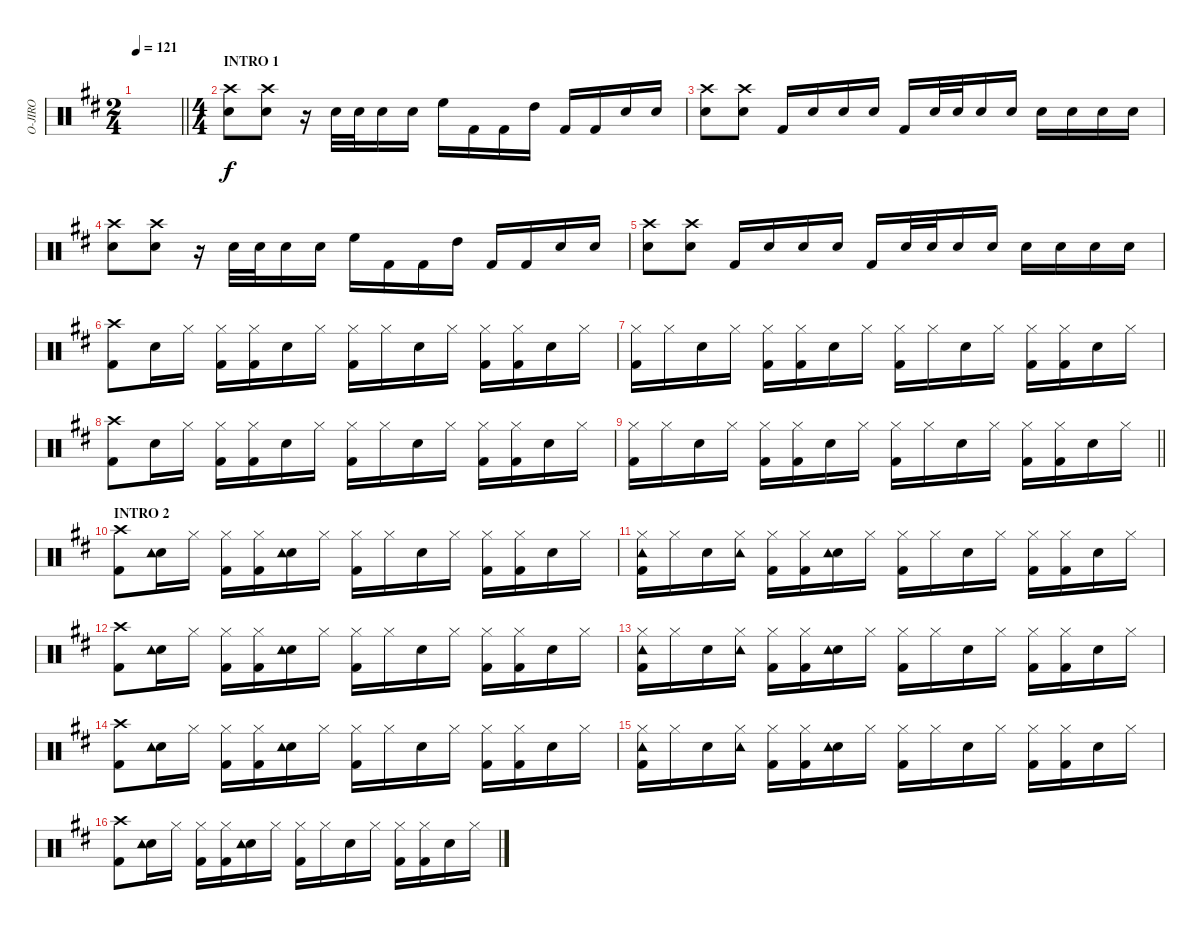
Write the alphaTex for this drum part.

\track ("O-JIRO" "O-JIRO") {instrument percussion}
\staff {score}
\articulation defaults
\ts (2 4)
\tempo 121
\clef neutral
\barLineRight lightlight
\ks d
|
\ts (4 4)
\section ("" "INTRO 1")
("Crash high (hit)" "Snare (hit) 2").8 ("Crash high (hit)" "Snare (hit) 2").8 r.16 "Snare (hit) 2".32 "Snare (hit) 2".32 "Snare (hit) 2".16 "Snare (hit) 2".16 "High Floor Tom (hit)".16 "Kick (hit) 2".16 "Kick (hit) 2".16 "High Tom (hit)".16 "Kick (hit) 2".16 "Kick (hit) 2".16 "Snare (hit) 2".16 "Snare (hit) 2".16 |
("Crash high (hit)" "Snare (hit) 2").8 ("Crash high (hit)" "Snare (hit) 2").8 "Kick (hit) 2".16 "Snare (hit) 2".16 "Snare (hit) 2".16 "Snare (hit) 2".16 "Kick (hit) 2".16 "Snare (hit) 2".32 "Snare (hit) 2".32 "Snare (hit) 2".16 "Snare (hit) 2".16 "Snare (hit) 2".16 "Snare (hit) 2".16 "Snare (hit) 2".16 "Snare (hit) 2".16 |
("Crash high (hit)" "Snare (hit) 2").8 ("Crash high (hit)" "Snare (hit) 2").8 r.16 "Snare (hit) 2".32 "Snare (hit) 2".32 "Snare (hit) 2".16 "Snare (hit) 2".16 "High Floor Tom (hit)".16 "Kick (hit) 2".16 "Kick (hit) 2".16 "High Tom (hit)".16 "Kick (hit) 2".16 "Kick (hit) 2".16 "Snare (hit) 2".16 "Snare (hit) 2".16 |
("Crash high (hit)" "Snare (hit) 2").8 ("Crash high (hit)" "Snare (hit) 2").8 "Kick (hit) 2".16 "Snare (hit) 2".16 "Snare (hit) 2".16 "Snare (hit) 2".16 "Kick (hit) 2".16 "Snare (hit) 2".32 "Snare (hit) 2".32 "Snare (hit) 2".16 "Snare (hit) 2".16 "Snare (hit) 2".16 "Snare (hit) 2".16 "Snare (hit) 2".16 "Snare (hit) 2".16 |
("Crash high (hit)" "Kick (hit) 2").8 "Snare (hit) 2".16 "Hi-Hat (closed)".16 ("Hi-Hat (closed)" "Kick (hit) 2").16 ("Hi-Hat (closed)" "Kick (hit) 2").16 "Snare (hit) 2".16 "Hi-Hat (closed)".16 ("Hi-Hat (closed)" "Kick (hit) 2").16 "Hi-Hat (closed)".16 "Snare (hit) 2".16 "Hi-Hat (closed)".16 ("Hi-Hat (closed)" "Kick (hit) 2").16 ("Hi-Hat (closed)" "Kick (hit) 2").16 "Snare (hit) 2".16 "Hi-Hat (closed)".16 |
("Hi-Hat (closed)" "Kick (hit) 2").16 "Hi-Hat (closed)".16 "Snare (hit) 2".16 "Hi-Hat (closed)".16 ("Hi-Hat (closed)" "Kick (hit) 2").16 ("Hi-Hat (closed)" "Kick (hit) 2").16 "Snare (hit) 2".16 "Hi-Hat (closed)".16 ("Hi-Hat (closed)" "Kick (hit) 2").16 "Hi-Hat (closed)".16 "Snare (hit) 2".16 "Hi-Hat (closed)".16 ("Hi-Hat (closed)" "Kick (hit) 2").16 ("Hi-Hat (closed)" "Kick (hit) 2").16 "Snare (hit) 2".16 "Hi-Hat (closed)".16 |
("Crash high (hit)" "Kick (hit) 2").8 "Snare (hit) 2".16 "Hi-Hat (closed)".16 ("Hi-Hat (closed)" "Kick (hit) 2").16 ("Hi-Hat (closed)" "Kick (hit) 2").16 "Snare (hit) 2".16 "Hi-Hat (closed)".16 ("Hi-Hat (closed)" "Kick (hit) 2").16 "Hi-Hat (closed)".16 "Snare (hit) 2".16 "Hi-Hat (closed)".16 ("Hi-Hat (closed)" "Kick (hit) 2").16 ("Hi-Hat (closed)" "Kick (hit) 2").16 "Snare (hit) 2".16 "Hi-Hat (closed)".16 |
\barLineRight lightlight
("Hi-Hat (closed)" "Kick (hit) 2").16 "Hi-Hat (closed)".16 "Snare (hit) 2".16 "Hi-Hat (closed)".16 ("Hi-Hat (closed)" "Kick (hit) 2").16 ("Hi-Hat (closed)" "Kick (hit) 2").16 "Snare (hit) 2".16 "Hi-Hat (closed)".16 ("Hi-Hat (closed)" "Kick (hit) 2").16 "Hi-Hat (closed)".16 "Snare (hit) 2".16 "Hi-Hat (closed)".16 ("Hi-Hat (closed)" "Kick (hit) 2").16 ("Hi-Hat (closed)" "Kick (hit) 2").16 "Snare (hit) 2".16 "Hi-Hat (closed)".16 |
\section ("" "INTRO 2")
("Crash high (hit)" "Kick (hit) 2").8 ("Snare (hit) 2" "Tambourine (hit)").16 "Hi-Hat (closed)".16 ("Hi-Hat (closed)" "Kick (hit) 2").16 ("Hi-Hat (closed)" "Kick (hit) 2").16 ("Snare (hit) 2" "Tambourine (hit)").16 "Hi-Hat (closed)".16 ("Hi-Hat (closed)" "Kick (hit) 2").16 "Hi-Hat (closed)".16 "Snare (hit) 2".16 "Hi-Hat (closed)".16 ("Hi-Hat (closed)" "Kick (hit) 2").16 ("Hi-Hat (closed)" "Kick (hit) 2").16 "Snare (hit) 2".16 "Hi-Hat (closed)".16 |
("Hi-Hat (closed)" "Kick (hit) 2" "Tambourine (hit)").16 "Hi-Hat (closed)".16 "Snare (hit) 2".16 ("Hi-Hat (closed)" "Tambourine (hit)").16 ("Hi-Hat (closed)" "Kick (hit) 2").16 ("Hi-Hat (closed)" "Kick (hit) 2").16 ("Snare (hit) 2" "Tambourine (hit)").16 "Hi-Hat (closed)".16 ("Hi-Hat (closed)" "Kick (hit) 2").16 "Hi-Hat (closed)".16 "Snare (hit) 2".16 "Hi-Hat (closed)".16 ("Hi-Hat (closed)" "Kick (hit) 2").16 ("Hi-Hat (closed)" "Kick (hit) 2").16 "Snare (hit) 2".16 "Hi-Hat (closed)".16 |
("Crash high (hit)" "Kick (hit) 2").8 ("Snare (hit) 2" "Tambourine (hit)").16 "Hi-Hat (closed)".16 ("Hi-Hat (closed)" "Kick (hit) 2").16 ("Hi-Hat (closed)" "Kick (hit) 2").16 ("Snare (hit) 2" "Tambourine (hit)").16 "Hi-Hat (closed)".16 ("Hi-Hat (closed)" "Kick (hit) 2").16 "Hi-Hat (closed)".16 "Snare (hit) 2".16 "Hi-Hat (closed)".16 ("Hi-Hat (closed)" "Kick (hit) 2").16 ("Hi-Hat (closed)" "Kick (hit) 2").16 "Snare (hit) 2".16 "Hi-Hat (closed)".16 |
("Hi-Hat (closed)" "Kick (hit) 2" "Tambourine (hit)").16 "Hi-Hat (closed)".16 "Snare (hit) 2".16 ("Hi-Hat (closed)" "Tambourine (hit)").16 ("Hi-Hat (closed)" "Kick (hit) 2").16 ("Hi-Hat (closed)" "Kick (hit) 2").16 ("Snare (hit) 2" "Tambourine (hit)").16 "Hi-Hat (closed)".16 ("Hi-Hat (closed)" "Kick (hit) 2").16 "Hi-Hat (closed)".16 "Snare (hit) 2".16 "Hi-Hat (closed)".16 ("Hi-Hat (closed)" "Kick (hit) 2").16 ("Hi-Hat (closed)" "Kick (hit) 2").16 "Snare (hit) 2".16 "Hi-Hat (closed)".16 |
("Crash high (hit)" "Kick (hit) 2").8 ("Snare (hit) 2" "Tambourine (hit)").16 "Hi-Hat (closed)".16 ("Hi-Hat (closed)" "Kick (hit) 2").16 ("Hi-Hat (closed)" "Kick (hit) 2").16 ("Snare (hit) 2" "Tambourine (hit)").16 "Hi-Hat (closed)".16 ("Hi-Hat (closed)" "Kick (hit) 2").16 "Hi-Hat (closed)".16 "Snare (hit) 2".16 "Hi-Hat (closed)".16 ("Hi-Hat (closed)" "Kick (hit) 2").16 ("Hi-Hat (closed)" "Kick (hit) 2").16 "Snare (hit) 2".16 "Hi-Hat (closed)".16 |
("Hi-Hat (closed)" "Kick (hit) 2" "Tambourine (hit)").16 "Hi-Hat (closed)".16 "Snare (hit) 2".16 ("Hi-Hat (closed)" "Tambourine (hit)").16 ("Hi-Hat (closed)" "Kick (hit) 2").16 ("Hi-Hat (closed)" "Kick (hit) 2").16 ("Snare (hit) 2" "Tambourine (hit)").16 "Hi-Hat (closed)".16 ("Hi-Hat (closed)" "Kick (hit) 2").16 "Hi-Hat (closed)".16 "Snare (hit) 2".16 "Hi-Hat (closed)".16 ("Hi-Hat (closed)" "Kick (hit) 2").16 ("Hi-Hat (closed)" "Kick (hit) 2").16 "Snare (hit) 2".16 "Hi-Hat (closed)".16 |
("Crash high (hit)" "Kick (hit) 2").8 ("Snare (hit) 2" "Tambourine (hit)").16 "Hi-Hat (closed)".16 ("Hi-Hat (closed)" "Kick (hit) 2").16 ("Hi-Hat (closed)" "Kick (hit) 2").16 ("Snare (hit) 2" "Tambourine (hit)").16 "Hi-Hat (closed)".16 ("Hi-Hat (closed)" "Kick (hit) 2").16 "Hi-Hat (closed)".16 "Snare (hit) 2".16 "Hi-Hat (closed)".16 ("Hi-Hat (closed)" "Kick (hit) 2").16 ("Hi-Hat (closed)" "Kick (hit) 2").16 "Snare (hit) 2".16 "Hi-Hat (closed)".16
